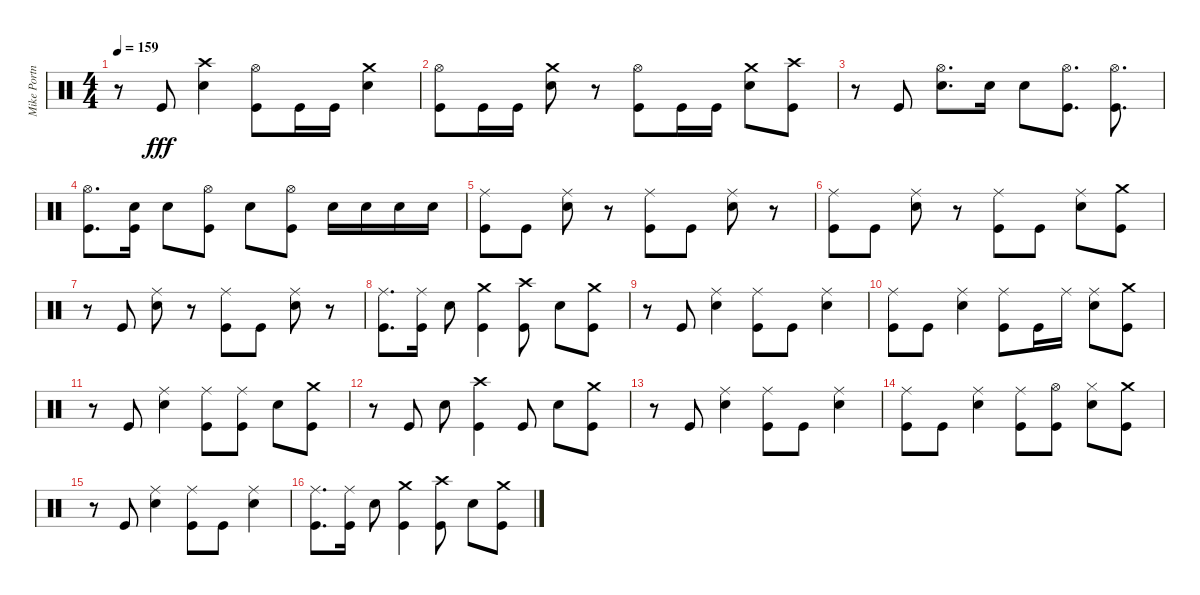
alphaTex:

\track ("Mike Portnoy" "Mike Portn") {instrument percussion}
\staff {score}
\articulation defaults
\ts (4 4)
\tempo 159
\clef neutral
\ks c
r.8{dy fff} "Kick (hit)".8 ("Crash high (hit)" "Electric Snare (hit)").4 ("Hi-Hat (open)" "Kick (hit)").8 "Kick (hit)".16 "Kick (hit)".16 ("Crash medium (hit)" "Electric Snare (hit)").4 |
("Hi-Hat (open)" "Kick (hit)").8 "Kick (hit)".16 "Kick (hit)".16 ("Crash medium (hit)" "Electric Snare (hit)").8 r.8 ("Hi-Hat (open)" "Kick (hit)").8 "Kick (hit)".16 "Kick (hit)".16 ("Crash medium (hit)" "Electric Snare (hit)").8 ("Crash high (hit)" "Kick (hit)").8 |
r.8 "Kick (hit)".8 ("Hi-Hat (open)" "Electric Snare (hit)").8{d} "Electric Snare (hit)".16 "Electric Snare (hit)".8 ("Hi-Hat (open)" "Kick (hit)").8{d} ("Hi-Hat (open)" "Kick (hit)").8{d} |
("Hi-Hat (open)" "Kick (hit)").8{d} ("Electric Snare (hit)" "Kick (hit)").16 "Electric Snare (hit)".8 ("Hi-Hat (open)" "Kick (hit)").8 "Electric Snare (hit)".8 ("Hi-Hat (open)" "Kick (hit)").8 "Electric Snare (hit)".16 "Electric Snare (hit)".16 "Electric Snare (hit)".16 "Electric Snare (hit)".16 |
("Ride (middle)" "Kick (hit)").8 "Kick (hit)".8 ("Ride (middle)" "Electric Snare (hit)").8 r.8 ("Ride (middle)" "Kick (hit)").8 "Kick (hit)".8 ("Ride (middle)" "Electric Snare (hit)").8 r.8 |
("Ride (middle)" "Kick (hit)").8 "Kick (hit)".8 ("Ride (middle)" "Electric Snare (hit)").8 r.8 ("Ride (middle)" "Kick (hit)").8 "Kick (hit)".8 ("Ride (middle)" "Electric Snare (hit)").8 ("Crash medium (hit)" "Kick (hit)").8 |
r.8 "Kick (hit)".8 ("Ride (middle)" "Electric Snare (hit)").8 r.8 ("Ride (middle)" "Kick (hit)").8 "Kick (hit)".8 ("Ride (middle)" "Electric Snare (hit)").8 r.8 |
("Ride (middle)" "Kick (hit)").8{d} ("Ride (middle)" "Kick (hit)").16 "Electric Snare (hit)".8 ("Crash medium (hit)" "Kick (hit)").4 ("Crash high (hit)" "Kick (hit)").8 "Electric Snare (hit)".8 ("Crash medium (hit)" "Kick (hit)").8 |
r.8 "Kick (hit)".8 ("Ride (middle)" "Electric Snare (hit)").4 ("Ride (middle)" "Kick (hit)").8 "Kick (hit)".8 ("Ride (middle)" "Electric Snare (hit)").4 |
("Ride (middle)" "Kick (hit)").8 "Kick (hit)".8 ("Ride (middle)" "Electric Snare (hit)").4 ("Ride (middle)" "Kick (hit)").8 "Kick (hit)".16 "Ride (middle)".16 ("Ride (middle)" "Electric Snare (hit)").8 ("Crash medium (hit)" "Kick (hit)").8 |
r.8 "Kick (hit)".8 ("Ride (middle)" "Electric Snare (hit)").4 ("Ride (middle)" "Kick (hit)").8 ("Ride (middle)" "Kick (hit)").8 "Electric Snare (hit)".8 ("Crash medium (hit)" "Kick (hit)").8 |
r.8 "Kick (hit)".8 "Electric Snare (hit)".8 ("Crash high (hit)" "Kick (hit)").4 "Kick (hit)".8 "Electric Snare (hit)".8 ("Crash medium (hit)" "Kick (hit)").8 |
r.8 "Kick (hit)".8 ("Ride (middle)" "Electric Snare (hit)").4 ("Ride (middle)" "Kick (hit)").8 "Kick (hit)".8 ("Ride (middle)" "Electric Snare (hit)").4 |
("Ride (middle)" "Kick (hit)").8 "Kick (hit)".8 ("Ride (middle)" "Electric Snare (hit)").4 ("Ride (middle)" "Kick (hit)").8 ("Hi-Hat (open)" "Kick (hit)").8 ("Hi-Hat (closed)" "Electric Snare (hit)").8 ("Crash medium (hit)" "Kick (hit)").8 |
r.8 "Kick (hit)".8 ("Ride (middle)" "Electric Snare (hit)").4 ("Ride (middle)" "Kick (hit)").8 "Kick (hit)".8 ("Ride (middle)" "Electric Snare (hit)").4 |
("Ride (middle)" "Kick (hit)").8{d} ("Ride (middle)" "Kick (hit)").16 "Electric Snare (hit)".8 ("Crash medium (hit)" "Kick (hit)").4 ("Crash high (hit)" "Kick (hit)").8 "Electric Snare (hit)".8 ("Crash medium (hit)" "Kick (hit)").8
